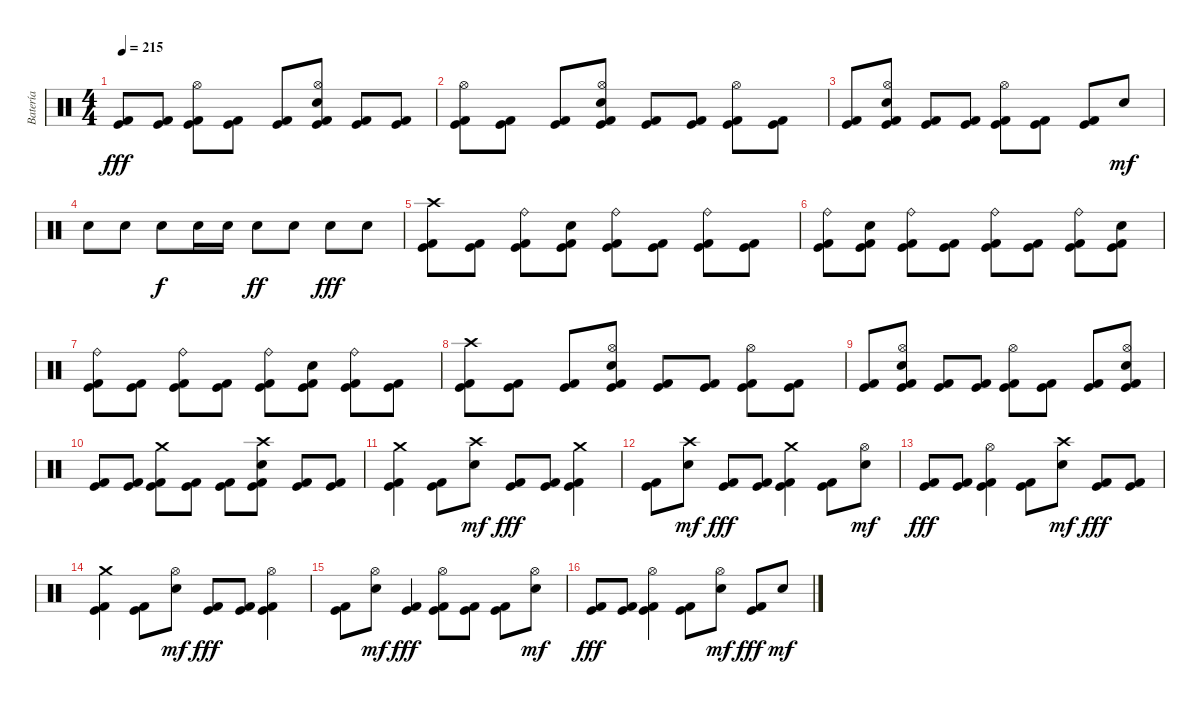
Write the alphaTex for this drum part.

\track ("Batería" "Batería") {instrument percussion}
\staff {score}
\articulation defaults
\ts (4 4)
\tempo 215
\clef neutral
\ks c
("Kick (hit) 2" "Kick (hit)").8{dy fff} ("Kick (hit) 2" "Kick (hit)").8 ("Hi-Hat (open)" "Kick (hit) 2" "Kick (hit)").8 ("Kick (hit) 2" "Kick (hit)").8 ("Kick (hit) 2" "Kick (hit)").8 ("Hi-Hat (open)" "Electric Snare (hit)" "Kick (hit) 2" "Kick (hit)").8 ("Kick (hit) 2" "Kick (hit)").8 ("Kick (hit) 2" "Kick (hit)").8 |
("Hi-Hat (open)" "Kick (hit) 2" "Kick (hit)").8 ("Kick (hit) 2" "Kick (hit)").8 ("Kick (hit) 2" "Kick (hit)").8 ("Hi-Hat (open)" "Electric Snare (hit)" "Kick (hit) 2" "Kick (hit)").8 ("Kick (hit) 2" "Kick (hit)").8 ("Kick (hit) 2" "Kick (hit)").8 ("Hi-Hat (open)" "Kick (hit) 2" "Kick (hit)").8 ("Kick (hit) 2" "Kick (hit)").8 |
("Kick (hit) 2" "Kick (hit)").8 ("Hi-Hat (open)" "Electric Snare (hit)" "Kick (hit) 2" "Kick (hit)").8 ("Kick (hit) 2" "Kick (hit)").8 ("Kick (hit) 2" "Kick (hit)").8 ("Hi-Hat (open)" "Kick (hit) 2" "Kick (hit)").8 ("Kick (hit) 2" "Kick (hit)").8 ("Kick (hit) 2" "Kick (hit)").8 "Electric Snare (hit)".8{dy mf} |
"Electric Snare (hit)".8 "Electric Snare (hit)".8 "Electric Snare (hit)".8{dy f} "Electric Snare (hit)".16 "Electric Snare (hit)".16 "Electric Snare (hit)".8{dy ff} "Electric Snare (hit)".8 "Electric Snare (hit)".8{dy fff} "Electric Snare (hit)".8 |
("Crash high (hit)" "Kick (hit) 2" "Kick (hit)").8 ("Kick (hit) 2" "Kick (hit)").8 ("Ride (bell)" "Kick (hit) 2" "Kick (hit)").8 ("Electric Snare (hit)" "Kick (hit) 2" "Kick (hit)").8 ("Ride (bell)" "Kick (hit) 2" "Kick (hit)").8 ("Kick (hit) 2" "Kick (hit)").8 ("Ride (bell)" "Kick (hit) 2" "Kick (hit)").8 ("Kick (hit) 2" "Kick (hit)").8 |
("Ride (bell)" "Kick (hit) 2" "Kick (hit)").8 ("Electric Snare (hit)" "Kick (hit) 2" "Kick (hit)").8 ("Ride (bell)" "Kick (hit) 2" "Kick (hit)").8 ("Kick (hit) 2" "Kick (hit)").8 ("Ride (bell)" "Kick (hit) 2" "Kick (hit)").8 ("Kick (hit) 2" "Kick (hit)").8 ("Ride (bell)" "Kick (hit) 2" "Kick (hit)").8 ("Electric Snare (hit)" "Kick (hit) 2" "Kick (hit)").8 |
("Ride (bell)" "Kick (hit) 2" "Kick (hit)").8 ("Kick (hit) 2" "Kick (hit)").8 ("Ride (bell)" "Kick (hit) 2" "Kick (hit)").8 ("Kick (hit) 2" "Kick (hit)").8 ("Ride (bell)" "Kick (hit) 2" "Kick (hit)").8 ("Electric Snare (hit)" "Kick (hit) 2" "Kick (hit)").8 ("Ride (bell)" "Kick (hit) 2" "Kick (hit)").8 ("Kick (hit) 2" "Kick (hit)").8 |
("Crash high (hit)" "Kick (hit) 2" "Kick (hit)").8 ("Kick (hit) 2" "Kick (hit)").8 ("Kick (hit) 2" "Kick (hit)").8 ("Hi-Hat (open)" "Electric Snare (hit)" "Kick (hit) 2" "Kick (hit)").8 ("Kick (hit) 2" "Kick (hit)").8 ("Kick (hit) 2" "Kick (hit)").8 ("Hi-Hat (open)" "Kick (hit) 2" "Kick (hit)").8 ("Kick (hit) 2" "Kick (hit)").8 |
("Kick (hit) 2" "Kick (hit)").8 ("Hi-Hat (open)" "Electric Snare (hit)" "Kick (hit) 2" "Kick (hit)").8 ("Kick (hit) 2" "Kick (hit)").8 ("Kick (hit) 2" "Kick (hit)").8 ("Hi-Hat (open)" "Kick (hit) 2" "Kick (hit)").8 ("Kick (hit) 2" "Kick (hit)").8 ("Kick (hit) 2" "Kick (hit)").8 ("Hi-Hat (open)" "Electric Snare (hit)" "Kick (hit) 2" "Kick (hit)").8 |
("Kick (hit) 2" "Kick (hit)").8 ("Kick (hit) 2" "Kick (hit)").8 ("Crash medium (hit)" "Kick (hit) 2" "Kick (hit)").8 ("Kick (hit) 2" "Kick (hit)").8 ("Kick (hit) 2" "Kick (hit)").8 ("Crash high (hit)" "Electric Snare (hit)" "Kick (hit) 2" "Kick (hit)").8 ("Kick (hit) 2" "Kick (hit)").8 ("Kick (hit) 2" "Kick (hit)").8 |
("Crash medium (hit)" "Kick (hit) 2" "Kick (hit)").4 ("Kick (hit) 2" "Kick (hit)").8 ("Crash high (hit)" "Electric Snare (hit)").8{dy mf} ("Kick (hit) 2" "Kick (hit)").8{dy fff} ("Kick (hit) 2" "Kick (hit)").8 ("Crash medium (hit)" "Kick (hit) 2" "Kick (hit)").4 |
("Kick (hit) 2" "Kick (hit)").8 ("Crash high (hit)" "Electric Snare (hit)").8{dy mf} ("Kick (hit) 2" "Kick (hit)").8{dy fff} ("Kick (hit) 2" "Kick (hit)").8 ("Crash medium (hit)" "Kick (hit) 2" "Kick (hit)").4 ("Kick (hit) 2" "Kick (hit)").8 ("Hi-Hat (open)" "Electric Snare (hit)").8{dy mf} |
("Kick (hit) 2" "Kick (hit)").8{dy fff} ("Kick (hit) 2" "Kick (hit)").8 ("Hi-Hat (open)" "Kick (hit) 2" "Kick (hit)").4 ("Kick (hit) 2" "Kick (hit)").8 ("Crash high (hit)" "Electric Snare (hit)").8{dy mf} ("Kick (hit) 2" "Kick (hit)").8{dy fff} ("Kick (hit) 2" "Kick (hit)").8 |
("Crash medium (hit)" "Kick (hit) 2" "Kick (hit)").4 ("Kick (hit) 2" "Kick (hit)").8 ("Hi-Hat (open)" "Electric Snare (hit)").8{dy mf} ("Kick (hit) 2" "Kick (hit)").8{dy fff} ("Kick (hit) 2" "Kick (hit)").8 ("Hi-Hat (open)" "Kick (hit) 2" "Kick (hit)").4 |
("Kick (hit) 2" "Kick (hit)").8 ("Hi-Hat (open)" "Electric Snare (hit)").8{dy mf} ("Kick (hit) 2" "Kick (hit)").4{dy fff} ("Hi-Hat (open)" "Kick (hit) 2" "Kick (hit)").8 ("Kick (hit) 2" "Kick (hit)").8 ("Kick (hit) 2" "Kick (hit)").8 ("Hi-Hat (open)" "Electric Snare (hit)").8{dy mf} |
("Kick (hit) 2" "Kick (hit)").8{dy fff} ("Kick (hit) 2" "Kick (hit)").8 ("Hi-Hat (open)" "Kick (hit) 2" "Kick (hit)").4 ("Kick (hit) 2" "Kick (hit)").8 ("Hi-Hat (open)" "Electric Snare (hit)").8{dy mf} ("Kick (hit) 2" "Kick (hit)").8{dy fff} "Electric Snare (hit)".8{dy mf}
